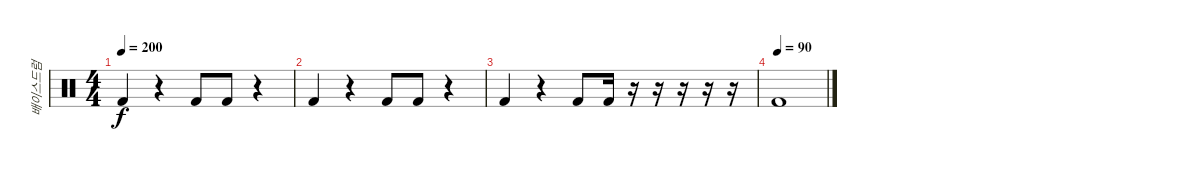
\track ("배이스드럼" "배이스드럼") {instrument percussion}
\staff {score}
\articulation defaults
\ts (4 4)
\tempo 200
\clef neutral
\ks c "Kick (hit) 2".4{dy f}
r.4 "Kick (hit) 2".8 "Kick (hit) 2".8 r.4 |
"Kick (hit) 2".4 r.4 "Kick (hit) 2".8 "Kick (hit) 2".8 r.4 |
"Kick (hit) 2".4 r.4 "Kick (hit) 2".8 "Kick (hit) 2".16 r.16 r.16 r.16 r.16 r.16 |
\tempo (90)
"Kick (hit) 2".1
